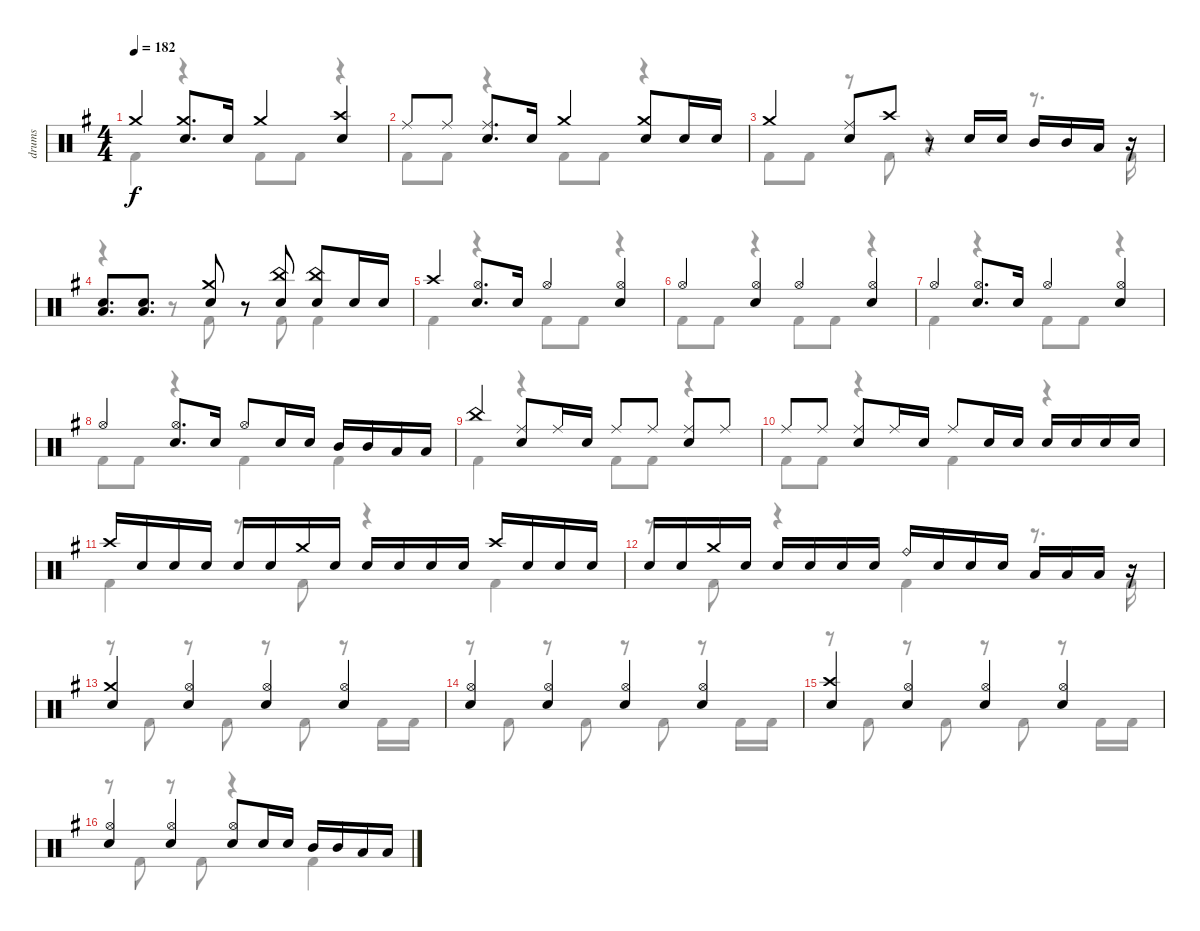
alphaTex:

\track ("drums" "drums") {instrument percussion}
\staff {score}
\articulation defaults
\voice
\ts (4 4)
\tempo 182
\clef neutral
\ks g "Crash medium (hit)".4{dy f}
("Crash medium (hit)" "Snare (hit) 2").8{d} "Snare (hit) 2".16 "Crash medium (hit)".4 ("Crash high (hit)" "Snare (hit) 2").4 |
"Ride (middle)".8 "Ride (middle)".8 ("Ride (middle)" "Snare (hit) 2").8{d} "Snare (hit) 2".16 "Crash medium (hit)".4 ("Crash medium (hit)" "Snare (hit) 2").8 "Snare (hit) 2".16 "Snare (hit) 2".16 |
"Crash medium (hit)".4 ("Ride (middle)" "Snare (hit) 2").8 "Crash high (hit)".8 r.8 "Snare (hit) 2".16 "Snare (hit) 2".16 "Mid Tom (hit)".16 "Mid Tom (hit)".16 "Low Tom (hit)".16 r.16 |
("Snare (hit) 2" "Low Floor Tom (hit)").8{d} ("Snare (hit) 2" "Low Floor Tom (hit)").8{d} ("Crash medium (hit)" "Snare (hit) 2").8 r.8 ("China (hit)" "Snare (hit) 2").8 ("China (hit)" "Snare (hit) 2").8 "Snare (hit) 2".16 "Snare (hit) 2".16 |
"Crash high (hit)".4 ("Hi-Hat (open)" "Snare (hit) 2").8{d} "Snare (hit) 2".16 "Hi-Hat (open)".4 ("Hi-Hat (open)" "Snare (hit) 2").4 |
"Hi-Hat (open)".4 ("Hi-Hat (open)" "Snare (hit) 2").4 "Hi-Hat (open)".4 ("Hi-Hat (open)" "Snare (hit) 2").4 |
"Hi-Hat (open)".4 ("Hi-Hat (open)" "Snare (hit) 2").8{d} "Snare (hit) 2".16 "Hi-Hat (open)".4 ("Hi-Hat (open)" "Snare (hit) 2").4 |
"Hi-Hat (open)".4 ("Hi-Hat (open)" "Snare (hit) 2").8{d} "Snare (hit) 2".16 "Hi-Hat (open)".8 "Snare (hit) 2".16 "Snare (hit) 2".16 "Mid Tom (hit)".16 "Mid Tom (hit)".16 "Low Tom (hit)".16 "Low Tom (hit)".16 |
"China (hit)".4 ("Ride (middle)" "Snare (hit) 2").8 "Ride (middle)".16 "Snare (hit) 2".16 "Ride (middle)".8 "Ride (middle)".8 ("Ride (middle)" "Snare (hit) 2").8 "Ride (middle)".8 |
"Ride (middle)".8 "Ride (middle)".8 ("Ride (middle)" "Snare (hit) 2").8 "Ride (middle)".16 "Snare (hit) 2".16 "Ride (middle)".8 "Snare (hit) 2".16 "Snare (hit) 2".16 "Snare (hit) 2".16 "Snare (hit) 2".16 "Snare (hit) 2".16 "Snare (hit) 2".16 |
"Crash high (hit)".16 "Snare (hit) 2".16 "Snare (hit) 2".16 "Snare (hit) 2".16 "Snare (hit) 2".16 "Snare (hit) 2".16 "Crash medium (hit)".16 "Snare (hit) 2".16 "Snare (hit) 2".16 "Snare (hit) 2".16 "Snare (hit) 2".16 "Snare (hit) 2".16 "Crash high (hit)".16 "Snare (hit) 2".16 "Snare (hit) 2".16 "Snare (hit) 2".16 |
"Snare (hit) 2".16 "Snare (hit) 2".16 "Crash medium (hit)".16 "Snare (hit) 2".16 "Snare (hit) 2".16 "Snare (hit) 2".16 "Snare (hit) 2".16 "Snare (hit) 2".16 "Ride (bell)".16 "Snare (hit) 2".16 "Snare (hit) 2".16 "Snare (hit) 2".16 "Low Tom (hit)".16 "Low Tom (hit)".16 "Low Floor Tom (hit)".16 r.16 |
("Crash medium (hit)" "Snare (hit) 2").4 ("Hi-Hat (open)" "Snare (hit) 2").4 ("Hi-Hat (open)" "Snare (hit) 2").4 ("Hi-Hat (open)" "Snare (hit) 2").4 |
("Hi-Hat (open)" "Snare (hit) 2").4 ("Hi-Hat (open)" "Snare (hit) 2").4 ("Hi-Hat (open)" "Snare (hit) 2").4 ("Hi-Hat (open)" "Snare (hit) 2").4 |
("Crash high (hit)" "Snare (hit) 2").4 ("Hi-Hat (open)" "Snare (hit) 2").4 ("Hi-Hat (open)" "Snare (hit) 2").4 ("Hi-Hat (open)" "Snare (hit) 2").4 |
("Hi-Hat (open)" "Snare (hit) 2").4 ("Hi-Hat (open)" "Snare (hit) 2").4 ("Hi-Hat (open)" "Snare (hit) 2").8 "Snare (hit) 2".16 "Snare (hit) 2".16 "Mid Tom (hit)".16 "Mid Tom (hit)".16 "Low Tom (hit)".16 "Low Tom (hit)".16
\voice
\clef neutral
\ottava regular
\simile none
\ks g "Kick (hit) 2".4{dy f}
r.4 "Kick (hit) 2".8 "Kick (hit) 2".8 r.4 |
"Kick (hit) 2".8 "Kick (hit) 2".8 r.4 "Kick (hit) 2".8 "Kick (hit) 2".8 r.4 |
"Kick (hit) 2".8 "Kick (hit) 2".8 r.8 "Kick (hit) 2".8 r.4 r.8{d} "Kick (hit) 2".16 |
r.4 r.8 "Kick (hit) 2".8 r.8 "Kick (hit) 2".8 "Kick (hit) 2".4 |
"Kick (hit) 2".4 r.4 "Kick (hit) 2".8 "Kick (hit) 2".8 r.4 |
"Kick (hit) 2".8 "Kick (hit) 2".8 r.4 "Kick (hit) 2".8 "Kick (hit) 2".8 r.4 |
"Kick (hit) 2".4 r.4 "Kick (hit) 2".8 "Kick (hit) 2".8 r.4 |
"Kick (hit) 2".8 "Kick (hit) 2".8 r.4 "Kick (hit) 2".4 "Kick (hit) 2".4 |
"Kick (hit) 2".4 r.4 "Kick (hit) 2".8 "Kick (hit) 2".8 r.4 |
"Kick (hit) 2".8 "Kick (hit) 2".8 r.4 "Kick (hit) 2".4 r.4 |
"Kick (hit) 2".4 r.8 "Kick (hit) 2".8 r.4 "Kick (hit) 2".4 |
r.8 "Kick (hit) 2".8 r.4 "Kick (hit) 2".4 r.8{d} "Kick (hit) 2".16 |
r.8 "Kick (hit) 2".8 r.8 "Kick (hit) 2".8 r.8 "Kick (hit) 2".8 r.8 "Kick (hit) 2".16 "Kick (hit) 2".16 |
r.8 "Kick (hit) 2".8 r.8 "Kick (hit) 2".8 r.8 "Kick (hit) 2".8 r.8 "Kick (hit) 2".16 "Kick (hit) 2".16 |
r.8 "Kick (hit) 2".8 r.8 "Kick (hit) 2".8 r.8 "Kick (hit) 2".8 r.8 "Kick (hit) 2".16 "Kick (hit) 2".16 |
r.8 "Kick (hit) 2".8 r.8 "Kick (hit) 2".8 r.4 "Kick (hit) 2".4
